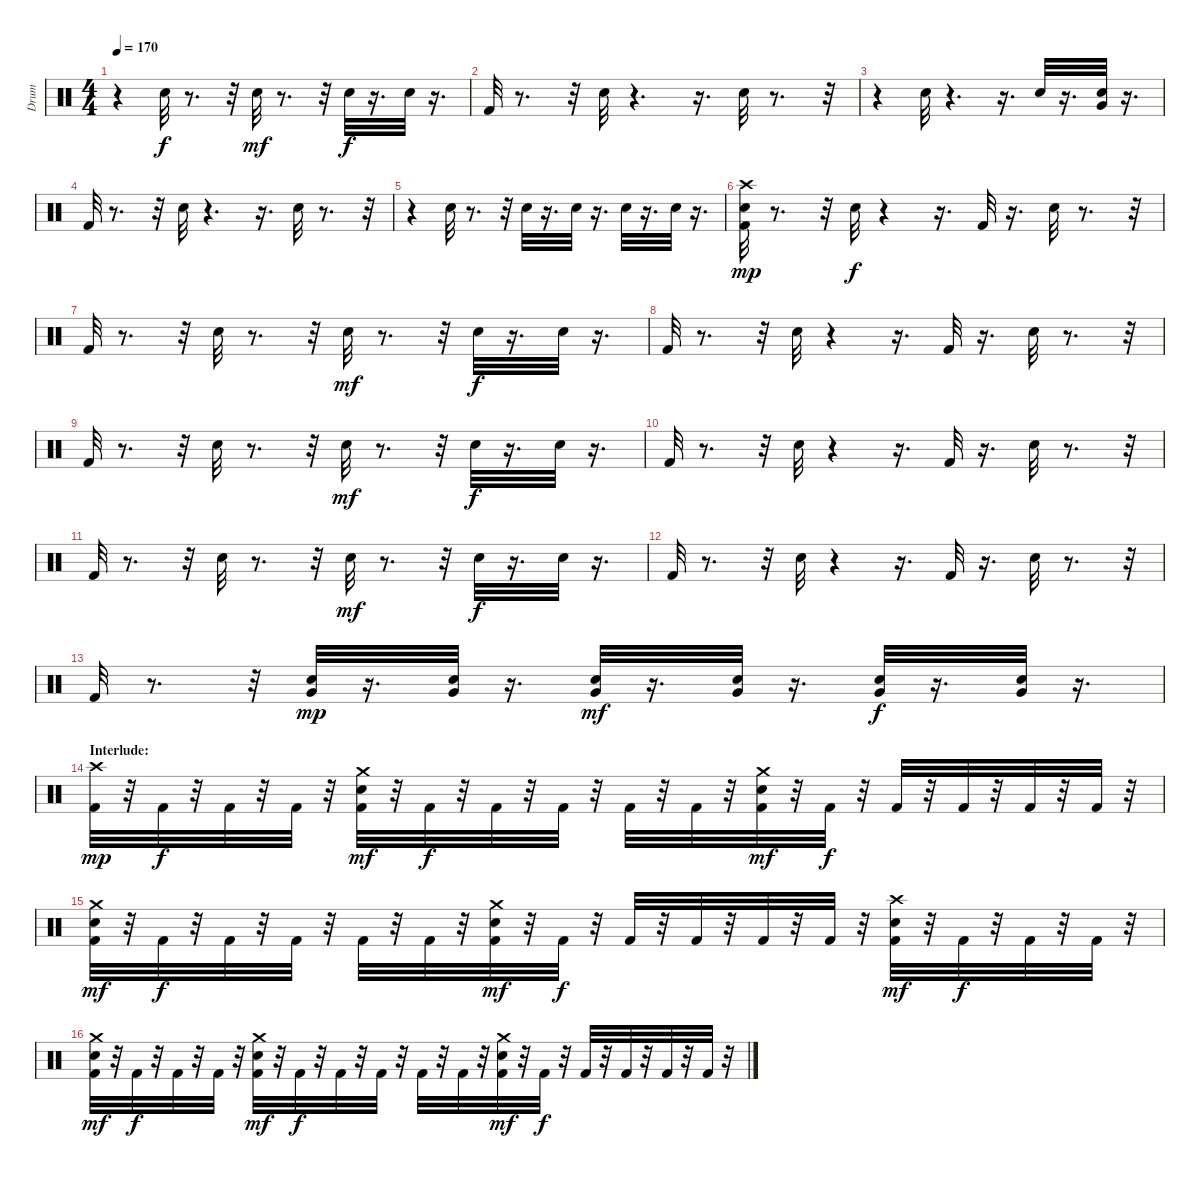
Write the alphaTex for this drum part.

\track ("Drum" "Drum") {instrument percussion}
\staff {score}
\articulation defaults
\ts (4 4)
\tempo 170
\clef neutral
\ks c
r.4{dy f} "Snare (hit) 2".32 r.8{d} r.32 "Snare (hit) 2".32{dy mf} r.8{d} r.32 "Snare (hit) 2".32{dy f} r.16{d} "Snare (hit) 2".32 r.16{d} |
"Kick (hit) 2".32 r.8{d} r.32 "Snare (hit) 2".32 r.4{d} r.16{d} "Snare (hit) 2".32 r.8{d} r.32 |
r.4 "Snare (hit) 2".32 r.4{d} r.16{d} "Snare (hit) 2".32 r.16{d} ("Very Low Tom (hit)" "Snare (hit) 2").32 r.16{d} |
"Kick (hit) 2".32 r.8{d} r.32 "Snare (hit) 2".32 r.4{d} r.16{d} "Snare (hit) 2".32 r.8{d} r.32 |
r.4 "Snare (hit) 2".32 r.8{d} r.32 "Snare (hit) 2".32 r.16{d} "Snare (hit) 2".32 r.16{d} "Snare (hit) 2".32 r.16{d} "Snare (hit) 2".32 r.16{d} |
("Snare (hit) 2" "Crash high (hit)" "Kick (hit) 2").32{dy mp} r.8{d} r.32 "Snare (hit) 2".32{dy f} r.4 r.16{d} "Kick (hit) 2".32 r.16{d} "Snare (hit) 2".32 r.8{d} r.32 |
"Kick (hit) 2".32 r.8{d} r.32 "Snare (hit) 2".32 r.8{d} r.32 "Snare (hit) 2".32{dy mf} r.8{d} r.32 "Snare (hit) 2".32{dy f} r.16{d} "Snare (hit) 2".32 r.16{d} |
"Kick (hit) 2".32 r.8{d} r.32 "Snare (hit) 2".32 r.4 r.16{d} "Kick (hit) 2".32 r.16{d} "Snare (hit) 2".32 r.8{d} r.32 |
"Kick (hit) 2".32 r.8{d} r.32 "Snare (hit) 2".32 r.8{d} r.32 "Snare (hit) 2".32{dy mf} r.8{d} r.32 "Snare (hit) 2".32{dy f} r.16{d} "Snare (hit) 2".32 r.16{d} |
"Kick (hit) 2".32 r.8{d} r.32 "Snare (hit) 2".32 r.4 r.16{d} "Kick (hit) 2".32 r.16{d} "Snare (hit) 2".32 r.8{d} r.32 |
"Kick (hit) 2".32 r.8{d} r.32 "Snare (hit) 2".32 r.8{d} r.32 "Snare (hit) 2".32{dy mf} r.8{d} r.32 "Snare (hit) 2".32{dy f} r.16{d} "Snare (hit) 2".32 r.16{d} |
"Kick (hit) 2".32 r.8{d} r.32 "Snare (hit) 2".32 r.4 r.16{d} "Kick (hit) 2".32 r.16{d} "Snare (hit) 2".32 r.8{d} r.32 |
"Kick (hit) 2".32 r.8{d} r.32 ("Very Low Tom (hit)" "Snare (hit) 2").32{dy mp} r.16{d} ("Very Low Tom (hit)" "Snare (hit) 2").32 r.16{d} ("Very Low Tom (hit)" "Snare (hit) 2").32{dy mf} r.16{d} ("Very Low Tom (hit)" "Snare (hit) 2").32 r.16{d} ("Very Low Tom (hit)" "Snare (hit) 2").32{dy f} r.16{d} ("Very Low Tom (hit)" "Snare (hit) 2").32 r.16{d} |
\section ("" "Interlude:")
("Crash high (hit)" "Kick (hit) 2").32{dy mp} r.32 "Kick (hit) 2".32{dy f} r.32 "Kick (hit) 2".32 r.32 "Kick (hit) 2".32 r.32 ("Snare (hit) 2" "Crash medium (hit)" "Kick (hit) 2").32{dy mf} r.32 "Kick (hit) 2".32{dy f} r.32 "Kick (hit) 2".32 r.32 "Kick (hit) 2".32 r.32 "Kick (hit) 2".32 r.32 "Kick (hit) 2".32 r.32 ("Crash medium (hit)" "Snare (hit) 2" "Kick (hit) 2").32{dy mf} r.32 "Kick (hit) 2".32{dy f} r.32 "Kick (hit) 2".32 r.32 "Kick (hit) 2".32 r.32 "Kick (hit) 2".32 r.32 "Kick (hit) 2".32 r.32 |
("Snare (hit) 2" "Crash medium (hit)" "Kick (hit) 2").32{dy mf} r.32 "Kick (hit) 2".32{dy f} r.32 "Kick (hit) 2".32 r.32 "Kick (hit) 2".32 r.32 "Kick (hit) 2".32 r.32 "Kick (hit) 2".32 r.32 ("Snare (hit) 2" "Crash medium (hit)" "Kick (hit) 2").32{dy mf} r.32 "Kick (hit) 2".32{dy f} r.32 "Kick (hit) 2".32 r.32 "Kick (hit) 2".32 r.32 "Kick (hit) 2".32 r.32 "Kick (hit) 2".32 r.32 ("Crash high (hit)" "Snare (hit) 2" "Kick (hit) 2").32{dy mf} r.32 "Kick (hit) 2".32{dy f} r.32 "Kick (hit) 2".32 r.32 "Kick (hit) 2".32 r.32 |
("Crash medium (hit)" "Snare (hit) 2" "Kick (hit) 2").32{dy mf} r.32 "Kick (hit) 2".32{dy f} r.32 "Kick (hit) 2".32 r.32 "Kick (hit) 2".32 r.32 ("Crash medium (hit)" "Snare (hit) 2" "Kick (hit) 2").32{dy mf} r.32 "Kick (hit) 2".32{dy f} r.32 "Kick (hit) 2".32 r.32 "Kick (hit) 2".32 r.32 "Kick (hit) 2".32 r.32 "Kick (hit) 2".32 r.32 ("Snare (hit) 2" "Crash medium (hit)" "Kick (hit) 2").32{dy mf} r.32 "Kick (hit) 2".32{dy f} r.32 "Kick (hit) 2".32 r.32 "Kick (hit) 2".32 r.32 "Kick (hit) 2".32 r.32 "Kick (hit) 2".32 r.32
